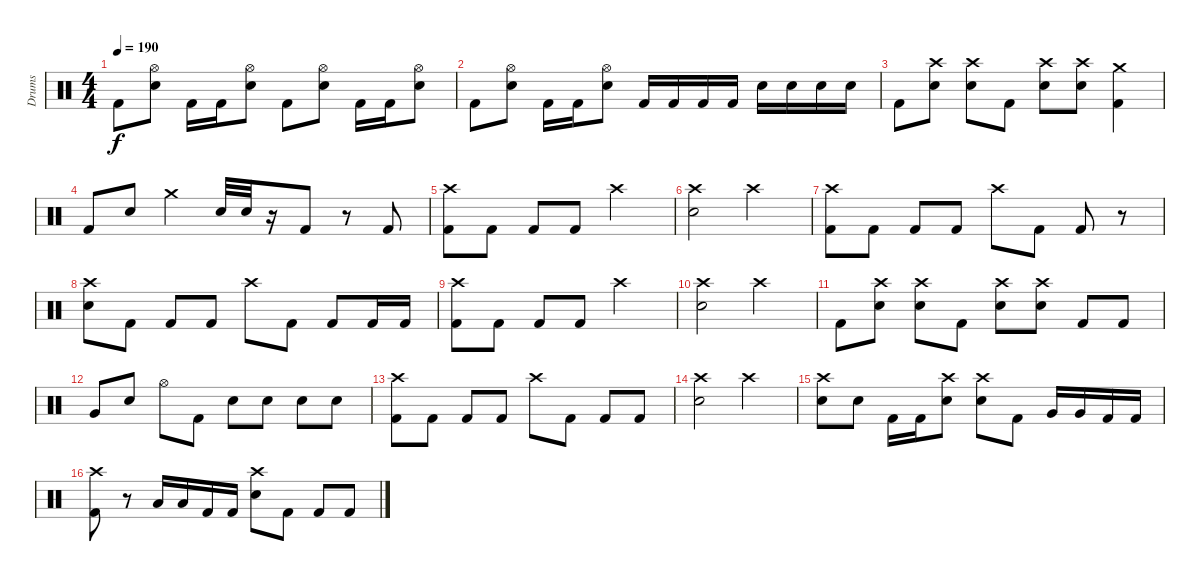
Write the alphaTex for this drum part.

\track ("Drums" "Drums") {instrument percussion}
\staff {score}
\articulation defaults
\ts (4 4)
\tempo 190
\clef neutral
\ks c "Kick (hit) 2".8{dy f}
("Hi-Hat (open)" "Electric Snare (hit)").8 "Kick (hit) 2".16 "Kick (hit) 2".16 ("Hi-Hat (open)" "Electric Snare (hit)").8 "Kick (hit) 2".8 ("Hi-Hat (open)" "Electric Snare (hit)").8 "Kick (hit) 2".16 "Kick (hit) 2".16 ("Hi-Hat (open)" "Electric Snare (hit)").8 |
"Kick (hit) 2".8 ("Hi-Hat (open)" "Electric Snare (hit)").8 "Kick (hit) 2".16 "Kick (hit) 2".16 ("Hi-Hat (open)" "Electric Snare (hit)").8 "Kick (hit) 2".16 "Kick (hit) 2".16 "Kick (hit) 2".16 "Kick (hit) 2".16 "Electric Snare (hit)".16 "Electric Snare (hit)".16 "Electric Snare (hit)".16 "Electric Snare (hit)".16 |
"Kick (hit) 2".8 ("Crash high (hit)" "Electric Snare (hit)").8 ("Crash high (hit)" "Electric Snare (hit)").8 "Kick (hit) 2".8 ("Crash high (hit)" "Electric Snare (hit)").8 ("Crash high (hit)" "Electric Snare (hit)").8 ("Crash medium (hit)" "Kick (hit) 2").4 |
"Kick (hit) 2".8 "Electric Snare (hit)".8 "Crash medium (hit)".4 "Electric Snare (hit)".32 "Electric Snare (hit)".32 r.16 "Kick (hit) 2".8 r.8 "Kick (hit) 2".8 |
("Crash high (hit)" "Kick (hit) 2").8 "Kick (hit) 2".8 "Kick (hit) 2".8 "Kick (hit) 2".8 "Crash high (hit)".2 |
("Crash high (hit)" "Electric Snare (hit)").2 "Crash high (hit)".2 |
("Crash high (hit)" "Kick (hit) 2").8 "Kick (hit) 2".8 "Kick (hit) 2".8 "Kick (hit) 2".8 "Crash high (hit)".8 "Kick (hit) 2".8 "Kick (hit) 2".8 r.8 |
("Crash high (hit)" "Electric Snare (hit)").8 "Kick (hit) 2".8 "Kick (hit) 2".8 "Kick (hit) 2".8 "Crash high (hit)".8 "Kick (hit) 2".8 "Kick (hit) 2".8 "Kick (hit) 2".16 "Kick (hit) 2".16 |
("Crash high (hit)" "Kick (hit) 2").8 "Kick (hit) 2".8 "Kick (hit) 2".8 "Kick (hit) 2".8 "Crash high (hit)".2 |
("Crash high (hit)" "Electric Snare (hit)").2 "Crash high (hit)".2 |
"Kick (hit) 2".8 ("Crash high (hit)" "Electric Snare (hit)").8 ("Crash high (hit)" "Electric Snare (hit)").8 "Kick (hit) 2".8 ("Crash high (hit)" "Electric Snare (hit)").8 ("Crash high (hit)" "Electric Snare (hit)").8 "Kick (hit) 2".8 "Kick (hit) 2".8 |
"Very Low Tom (hit)".8 "Electric Snare (hit)".8 "Hi-Hat (open)".8 "Kick (hit) 2".8 "Electric Snare (hit)".8 "Electric Snare (hit)".8 "Electric Snare (hit)".8 "Electric Snare (hit)".8 |
("Crash high (hit)" "Kick (hit) 2").8 "Kick (hit) 2".8 "Kick (hit) 2".8 "Kick (hit) 2".8 "Crash high (hit)".8 "Kick (hit) 2".8 "Kick (hit) 2".8 "Kick (hit) 2".8 |
("Crash high (hit)" "Electric Snare (hit)").2 "Crash high (hit)".2 |
("Crash high (hit)" "Electric Snare (hit)").8 "Electric Snare (hit)".8 "Kick (hit) 2".16 "Kick (hit) 2".16 ("Crash high (hit)" "Electric Snare (hit)").8 ("Crash high (hit)" "Electric Snare (hit)").8 "Kick (hit) 2".8 "Very Low Tom (hit)".16 "Very Low Tom (hit)".16 "Kick (hit) 2".16 "Kick (hit) 2".16 |
("Crash high (hit)" "Kick (hit) 2").8 r.8 "Low Floor Tom (hit)".16 "Low Floor Tom (hit)".16 "Kick (hit) 2".16 "Kick (hit) 2".16 ("Crash high (hit)" "Electric Snare (hit)").8 "Kick (hit) 2".8 "Kick (hit) 2".8 "Kick (hit) 2".8
